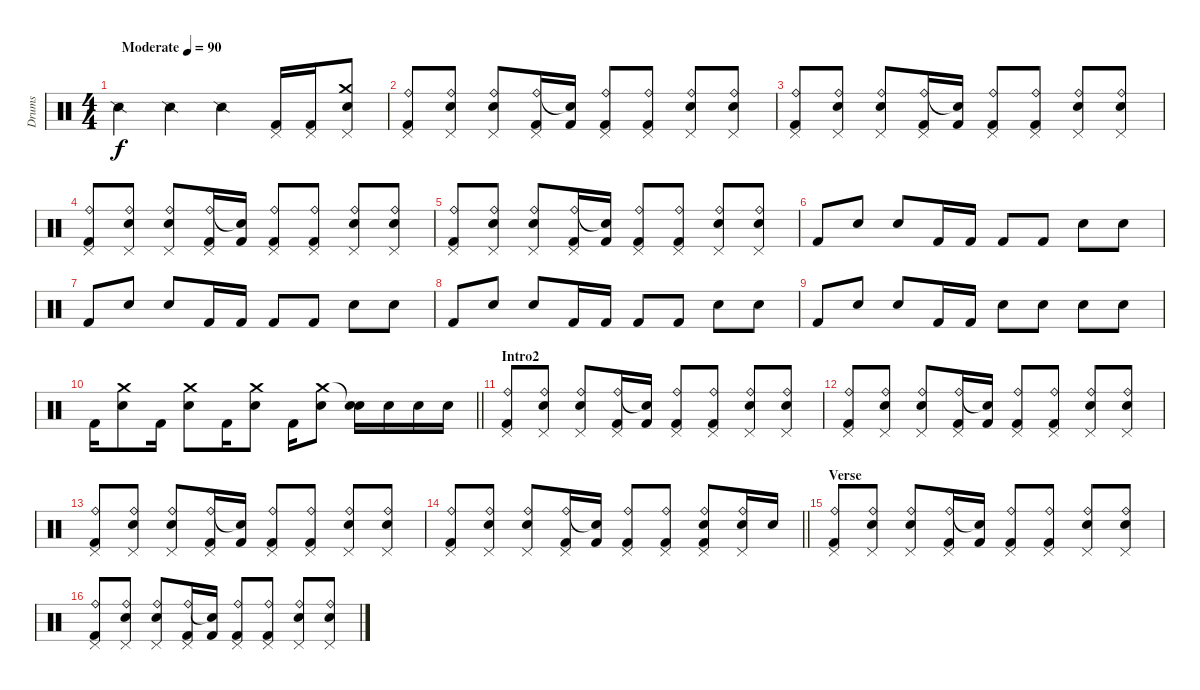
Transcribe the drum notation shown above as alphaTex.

\track ("Drums" "Drums") {instrument percussion}
\staff {score}
\articulation defaults
\ts (4 4)
\tempo (90 "Moderate")
\clef neutral
\ks c "Snare (side stick) 2".4{dy f} "Snare (side stick) 2".4 "Snare (side stick) 2".4
("Pedal Hi-Hat (hit)" "Kick (hit) 2").16 ("Pedal Hi-Hat (hit)" "Kick (hit) 2").16 ("Pedal Hi-Hat (hit)" "Crash medium (hit)" "Electric Snare (hit)").8 |
("Ride (bell)" "Pedal Hi-Hat (hit)" "Kick (hit) 2").8 ("Ride (bell)" "Pedal Hi-Hat (hit)" "Snare (hit)").8 ("Ride (bell)" "Pedal Hi-Hat (hit)" "Electric Snare (hit)").8 ("Ride (bell)" "Pedal Hi-Hat (hit)" "Kick (hit) 2").16 ("Snare (hit)"{t} "Kick (hit) 2").16 ("Ride (bell)" "Pedal Hi-Hat (hit)" "Kick (hit) 2").8 ("Ride (bell)" "Pedal Hi-Hat (hit)" "Kick (hit) 2").8 ("Ride (bell)" "Pedal Hi-Hat (hit)" "Electric Snare (hit)").8 ("Ride (bell)" "Pedal Hi-Hat (hit)" "Snare (hit)").8 |
("Ride (bell)" "Pedal Hi-Hat (hit)" "Kick (hit) 2").8 ("Ride (bell)" "Pedal Hi-Hat (hit)" "Snare (hit)").8 ("Ride (bell)" "Pedal Hi-Hat (hit)" "Electric Snare (hit)").8 ("Ride (bell)" "Pedal Hi-Hat (hit)" "Kick (hit) 2").16 ("Snare (hit)"{t} "Kick (hit) 2").16 ("Ride (bell)" "Pedal Hi-Hat (hit)" "Kick (hit) 2").8 ("Ride (bell)" "Pedal Hi-Hat (hit)" "Kick (hit) 2").8 ("Ride (bell)" "Pedal Hi-Hat (hit)" "Electric Snare (hit)").8 ("Ride (bell)" "Pedal Hi-Hat (hit)" "Snare (hit)").8 |
("Ride (bell)" "Pedal Hi-Hat (hit)" "Kick (hit) 2").8 ("Ride (bell)" "Pedal Hi-Hat (hit)" "Snare (hit)").8 ("Ride (bell)" "Pedal Hi-Hat (hit)" "Electric Snare (hit)").8 ("Ride (bell)" "Pedal Hi-Hat (hit)" "Kick (hit) 2").16 ("Snare (hit)"{t} "Kick (hit) 2").16 ("Ride (bell)" "Pedal Hi-Hat (hit)" "Kick (hit) 2").8 ("Ride (bell)" "Pedal Hi-Hat (hit)" "Kick (hit) 2").8 ("Ride (bell)" "Pedal Hi-Hat (hit)" "Electric Snare (hit)").8 ("Ride (bell)" "Pedal Hi-Hat (hit)" "Snare (hit)").8 |
("Ride (bell)" "Pedal Hi-Hat (hit)" "Kick (hit) 2").8 ("Ride (bell)" "Pedal Hi-Hat (hit)" "Snare (hit)").8 ("Ride (bell)" "Pedal Hi-Hat (hit)" "Electric Snare (hit)").8 ("Ride (bell)" "Pedal Hi-Hat (hit)" "Kick (hit) 2").16 ("Snare (hit)"{t} "Kick (hit) 2").16 ("Ride (bell)" "Pedal Hi-Hat (hit)" "Kick (hit) 2").8 ("Ride (bell)" "Pedal Hi-Hat (hit)" "Kick (hit) 2").8 ("Ride (bell)" "Pedal Hi-Hat (hit)" "Electric Snare (hit)").8 ("Ride (bell)" "Pedal Hi-Hat (hit)" "Electric Snare (hit)").8 |
"Kick (hit) 2".8 "Snare (hit)".8 "Electric Snare (hit)".8 "Kick (hit) 2".16 "Kick (hit) 2".16 "Kick (hit) 2".8 "Kick (hit) 2".8 "Electric Snare (hit)".8 "Snare (hit)".8 |
"Kick (hit) 2".8 "Snare (hit)".8 "Electric Snare (hit)".8 "Kick (hit) 2".16 "Kick (hit) 2".16 "Kick (hit) 2".8 "Kick (hit) 2".8 "Electric Snare (hit)".8 "Snare (hit)".8 |
"Kick (hit) 2".8 "Snare (hit)".8 "Electric Snare (hit)".8 "Kick (hit) 2".16 "Kick (hit) 2".16 "Kick (hit) 2".8 "Kick (hit) 2".8 "Electric Snare (hit)".8 "Snare (hit)".8 |
"Kick (hit) 2".8 "Snare (hit)".8 "Electric Snare (hit)".8 "Kick (hit) 2".16 "Kick (hit) 2".16 "Snare (hit)".8 "Snare (hit)".8 "Snare (hit)".8 "Electric Snare (hit)".8 |
\barLineRight lightlight "Kick (hit) 2".16
("Crash medium (hit)" "Electric Snare (hit)").8 "Kick (hit) 2".16 ("Crash medium (hit)" "Electric Snare (hit)").8 "Kick (hit) 2".16 ("Crash medium (hit)" "Electric Snare (hit)").8 "Kick (hit) 2".16 ("Crash medium (hit)" "Electric Snare (hit)").8 ("Snare (hit)"{t} "Electric Snare (hit)").16 "Electric Snare (hit)".16 "Electric Snare (hit)".16 "Electric Snare (hit)".16 |
\section ("" "Intro2")
("Ride (bell)" "Pedal Hi-Hat (hit)" "Kick (hit) 2").8 ("Ride (bell)" "Pedal Hi-Hat (hit)" "Snare (hit)").8 ("Ride (bell)" "Pedal Hi-Hat (hit)" "Electric Snare (hit)").8 ("Ride (bell)" "Pedal Hi-Hat (hit)" "Kick (hit) 2").16 ("Snare (hit)"{t} "Kick (hit) 2").16 ("Ride (bell)" "Pedal Hi-Hat (hit)" "Kick (hit) 2").8 ("Ride (bell)" "Pedal Hi-Hat (hit)" "Kick (hit) 2").8 ("Ride (bell)" "Pedal Hi-Hat (hit)" "Electric Snare (hit)").8 ("Ride (bell)" "Pedal Hi-Hat (hit)" "Snare (hit)").8 |
("Ride (bell)" "Pedal Hi-Hat (hit)" "Kick (hit) 2").8 ("Ride (bell)" "Pedal Hi-Hat (hit)" "Snare (hit)").8 ("Ride (bell)" "Pedal Hi-Hat (hit)" "Electric Snare (hit)").8 ("Ride (bell)" "Pedal Hi-Hat (hit)" "Kick (hit) 2").16 ("Snare (hit)"{t} "Kick (hit) 2").16 ("Ride (bell)" "Pedal Hi-Hat (hit)" "Kick (hit) 2").8 ("Ride (bell)" "Pedal Hi-Hat (hit)" "Kick (hit) 2").8 ("Ride (bell)" "Pedal Hi-Hat (hit)" "Electric Snare (hit)").8 ("Ride (bell)" "Pedal Hi-Hat (hit)" "Snare (hit)").8 |
("Ride (bell)" "Pedal Hi-Hat (hit)" "Kick (hit) 2").8 ("Ride (bell)" "Pedal Hi-Hat (hit)" "Snare (hit)").8 ("Ride (bell)" "Pedal Hi-Hat (hit)" "Electric Snare (hit)").8 ("Ride (bell)" "Pedal Hi-Hat (hit)" "Kick (hit) 2").16 ("Snare (hit)"{t} "Kick (hit) 2").16 ("Ride (bell)" "Pedal Hi-Hat (hit)" "Kick (hit) 2").8 ("Ride (bell)" "Pedal Hi-Hat (hit)" "Kick (hit) 2").8 ("Ride (bell)" "Pedal Hi-Hat (hit)" "Electric Snare (hit)").8 ("Ride (bell)" "Pedal Hi-Hat (hit)" "Snare (hit)").8 |
\barLineRight lightlight
("Ride (bell)" "Pedal Hi-Hat (hit)" "Kick (hit) 2").8 ("Ride (bell)" "Pedal Hi-Hat (hit)" "Snare (hit)").8 ("Ride (bell)" "Pedal Hi-Hat (hit)" "Electric Snare (hit)").8 ("Ride (bell)" "Pedal Hi-Hat (hit)" "Kick (hit) 2").16 ("Snare (hit)"{t} "Kick (hit) 2").16 ("Ride (bell)" "Pedal Hi-Hat (hit)" "Kick (hit) 2").8 ("Ride (bell)" "Pedal Hi-Hat (hit)" "Kick (hit) 2").8 ("Ride (bell)" "Pedal Hi-Hat (hit)" "Kick (hit) 2" "Electric Snare (hit)").8 ("Ride (bell)" "Pedal Hi-Hat (hit)" "Electric Snare (hit)").16 "Electric Snare (hit)".16 |
\section ("" "Verse")
("Ride (bell)" "Pedal Hi-Hat (hit)" "Kick (hit) 2").8 ("Ride (bell)" "Pedal Hi-Hat (hit)" "Snare (hit)").8 ("Ride (bell)" "Pedal Hi-Hat (hit)" "Electric Snare (hit)").8 ("Ride (bell)" "Pedal Hi-Hat (hit)" "Kick (hit) 2").16 ("Snare (hit)"{t} "Kick (hit) 2").16 ("Ride (bell)" "Pedal Hi-Hat (hit)" "Kick (hit) 2").8 ("Ride (bell)" "Pedal Hi-Hat (hit)" "Kick (hit) 2").8 ("Ride (bell)" "Pedal Hi-Hat (hit)" "Electric Snare (hit)").8 ("Ride (bell)" "Pedal Hi-Hat (hit)" "Snare (hit)").8 |
("Ride (bell)" "Pedal Hi-Hat (hit)" "Kick (hit) 2").8 ("Ride (bell)" "Pedal Hi-Hat (hit)" "Snare (hit)").8 ("Ride (bell)" "Pedal Hi-Hat (hit)" "Electric Snare (hit)").8 ("Ride (bell)" "Pedal Hi-Hat (hit)" "Kick (hit) 2").16 ("Snare (hit)"{t} "Kick (hit) 2").16 ("Ride (bell)" "Pedal Hi-Hat (hit)" "Kick (hit) 2").8 ("Ride (bell)" "Pedal Hi-Hat (hit)" "Kick (hit) 2").8 ("Ride (bell)" "Pedal Hi-Hat (hit)" "Electric Snare (hit)").8 ("Ride (bell)" "Pedal Hi-Hat (hit)" "Snare (hit)").8
